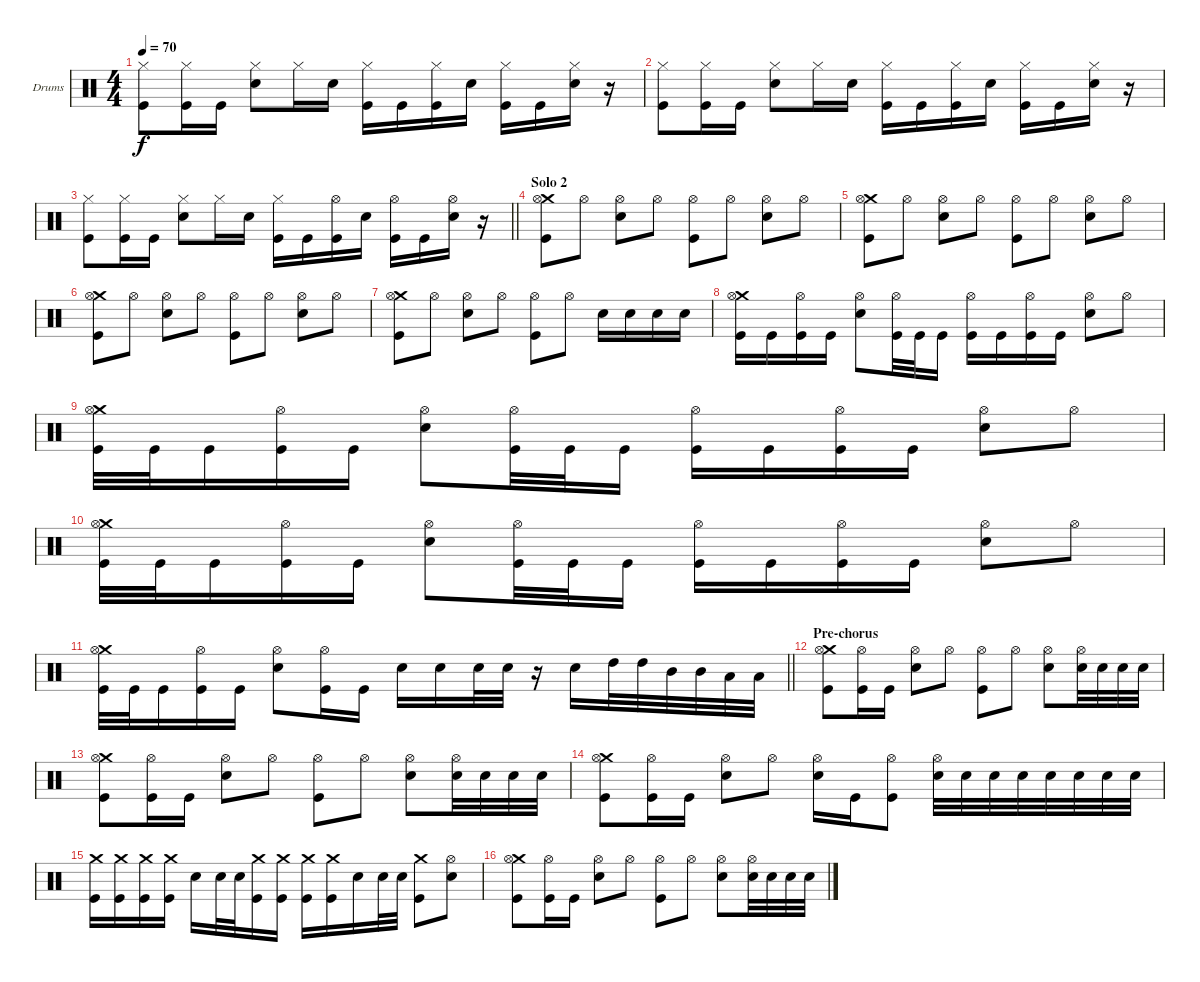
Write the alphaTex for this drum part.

\bracketExtendMode groupsimilarinstruments
\firstSystemTrackNameOrientation horizontal
\otherSystemsTrackNameOrientation horizontal
\track ("Drumkit" "Drums") {instrument percussion}
\staff {score}
\articulation defaults
\ts (4 4)
\tempo 70
\clef neutral
\ks c
("Hi-Hat (closed)" "Kick (hit)").8{dy f} ("Hi-Hat (closed)" "Kick (hit)").16 "Kick (hit)".16 ("Hi-Hat (closed)" "Snare (hit) 2").8 "Hi-Hat (closed)".16 "Snare (hit) 2".16 ("Hi-Hat (closed)" "Kick (hit)").16 "Kick (hit)".16 ("Hi-Hat (closed)" "Kick (hit)").16 "Snare (hit) 2".16 ("Hi-Hat (closed)" "Kick (hit)").16 "Kick (hit)".16 ("Hi-Hat (closed)" "Snare (hit) 2").16 r.16 |
("Hi-Hat (closed)" "Kick (hit)").8 ("Hi-Hat (closed)" "Kick (hit)").16 "Kick (hit)".16 ("Hi-Hat (closed)" "Snare (hit) 2").8 "Hi-Hat (closed)".16 "Snare (hit) 2".16 ("Hi-Hat (closed)" "Kick (hit)").16 "Kick (hit)".16 ("Hi-Hat (closed)" "Kick (hit)").16 "Snare (hit) 2".16 ("Hi-Hat (closed)" "Kick (hit)").16 "Kick (hit)".16 ("Hi-Hat (closed)" "Snare (hit) 2").16 r.16 |
\barLineRight lightlight
("Hi-Hat (closed)" "Kick (hit)").8 ("Hi-Hat (closed)" "Kick (hit)").16 "Kick (hit)".16 ("Hi-Hat (closed)" "Snare (hit) 2").8 "Hi-Hat (closed)".16 "Snare (hit) 2".16 ("Hi-Hat (closed)" "Kick (hit)").16 "Kick (hit)".16 ("Hi-Hat (open)" "Kick (hit)").16 "Snare (hit) 2".16 ("Hi-Hat (open)" "Kick (hit)").16 "Kick (hit)".16 ("Hi-Hat (open)" "Snare (hit) 2").16 r.16 |
\section ("" "Solo 2")
("Crash medium (hit)" "Hi-Hat (open)" "Kick (hit)").8 "Hi-Hat (open)".8 ("Hi-Hat (open)" "Snare (hit) 2").8 "Hi-Hat (open)".8 ("Hi-Hat (open)" "Kick (hit)").8 "Hi-Hat (open)".8 ("Hi-Hat (open)" "Snare (hit) 2").8 "Hi-Hat (open)".8 |
("Crash medium (hit)" "Hi-Hat (open)" "Kick (hit)").8 "Hi-Hat (open)".8 ("Hi-Hat (open)" "Snare (hit) 2").8 "Hi-Hat (open)".8 ("Hi-Hat (open)" "Kick (hit)").8 "Hi-Hat (open)".8 ("Hi-Hat (open)" "Snare (hit) 2").8 "Hi-Hat (open)".8 |
("Crash medium (hit)" "Hi-Hat (open)" "Kick (hit)").8 "Hi-Hat (open)".8 ("Hi-Hat (open)" "Snare (hit) 2").8 "Hi-Hat (open)".8 ("Hi-Hat (open)" "Kick (hit)").8 "Hi-Hat (open)".8 ("Hi-Hat (open)" "Snare (hit) 2").8 "Hi-Hat (open)".8 |
("Crash medium (hit)" "Hi-Hat (open)" "Kick (hit)").8 "Hi-Hat (open)".8 ("Hi-Hat (open)" "Snare (hit) 2").8 "Hi-Hat (open)".8 ("Hi-Hat (open)" "Kick (hit)").8 "Hi-Hat (open)".8 "Snare (hit) 2".16 "Snare (hit) 2".16 "Snare (hit) 2".16 "Snare (hit) 2".16 |
("Crash medium (hit)" "Hi-Hat (open)" "Kick (hit)").16 "Kick (hit)".16 ("Hi-Hat (open)" "Kick (hit)").16 "Kick (hit)".16 ("Hi-Hat (open)" "Snare (hit) 2").8 ("Hi-Hat (open)" "Kick (hit)").32 "Kick (hit)".32 "Kick (hit)".16 ("Hi-Hat (open)" "Kick (hit)").16 "Kick (hit)".16 ("Hi-Hat (open)" "Kick (hit)").16 "Kick (hit)".16 ("Hi-Hat (open)" "Snare (hit) 2").8 "Hi-Hat (open)".8 |
("Crash medium (hit)" "Hi-Hat (open)" "Kick (hit)").32 "Kick (hit)".32 "Kick (hit)".16 ("Hi-Hat (open)" "Kick (hit)").16 "Kick (hit)".16 ("Hi-Hat (open)" "Snare (hit) 2").8 ("Hi-Hat (open)" "Kick (hit)").32 "Kick (hit)".32 "Kick (hit)".16 ("Hi-Hat (open)" "Kick (hit)").16 "Kick (hit)".16 ("Hi-Hat (open)" "Kick (hit)").16 "Kick (hit)".16 ("Hi-Hat (open)" "Snare (hit) 2").8 "Hi-Hat (open)".8 |
("Crash medium (hit)" "Hi-Hat (open)" "Kick (hit)").32 "Kick (hit)".32 "Kick (hit)".16 ("Hi-Hat (open)" "Kick (hit)").16 "Kick (hit)".16 ("Hi-Hat (open)" "Snare (hit) 2").8 ("Hi-Hat (open)" "Kick (hit)").32 "Kick (hit)".32 "Kick (hit)".16 ("Hi-Hat (open)" "Kick (hit)").16 "Kick (hit)".16 ("Hi-Hat (open)" "Kick (hit)").16 "Kick (hit)".16 ("Hi-Hat (open)" "Snare (hit) 2").8 "Hi-Hat (open)".8 |
\barLineRight lightlight
("Crash medium (hit)" "Hi-Hat (open)" "Kick (hit)").32 "Kick (hit)".32 "Kick (hit)".16 ("Hi-Hat (open)" "Kick (hit)").16 "Kick (hit)".16 ("Hi-Hat (open)" "Snare (hit) 2").8 ("Hi-Hat (open)" "Kick (hit)").16 "Kick (hit)".16 "Snare (hit) 2".16 "Snare (hit) 2".16 "Snare (hit) 2".32 "Snare (hit) 2".32 r.16 "Snare (hit) 2".16 "High Tom (hit)".32 "High Tom (hit)".32 "Mid Tom (hit)".32 "Mid Tom (hit)".32 "Low Tom (hit)".32 "Low Tom (hit)".32 |
\section ("" "Pre-chorus")
("Crash medium (hit)" "Hi-Hat (open)" "Kick (hit)").8 ("Hi-Hat (open)" "Kick (hit)").16 "Kick (hit)".16 ("Hi-Hat (open)" "Snare (hit) 2").8 "Hi-Hat (open)".8 ("Hi-Hat (open)" "Kick (hit)").8 "Hi-Hat (open)".8 ("Hi-Hat (open)" "Snare (hit) 2").8 ("Hi-Hat (open)" "Snare (hit) 2").32 "Snare (hit) 2".32 "Snare (hit) 2".32 "Snare (hit) 2".32 |
("Crash medium (hit)" "Hi-Hat (open)" "Kick (hit)").8 ("Hi-Hat (open)" "Kick (hit)").16 "Kick (hit)".16 ("Hi-Hat (open)" "Snare (hit) 2").8 "Hi-Hat (open)".8 ("Hi-Hat (open)" "Kick (hit)").8 "Hi-Hat (open)".8 ("Hi-Hat (open)" "Snare (hit) 2").8 ("Hi-Hat (open)" "Snare (hit) 2").32 "Snare (hit) 2".32 "Snare (hit) 2".32 "Snare (hit) 2".32 |
("Crash medium (hit)" "Hi-Hat (open)" "Kick (hit)").8 ("Hi-Hat (open)" "Kick (hit)").16 "Kick (hit)".16 ("Hi-Hat (open)" "Snare (hit) 2").8 "Hi-Hat (open)".8 ("Hi-Hat (open)" "Snare (hit) 2").16 "Kick (hit)".16 ("Hi-Hat (open)" "Kick (hit)").8 ("Hi-Hat (open)" "Snare (hit) 2").32 "Snare (hit) 2".32 "Snare (hit) 2".32 "Snare (hit) 2".32 "Snare (hit) 2".32 "Snare (hit) 2".32 "Snare (hit) 2".32 "Snare (hit) 2".32 |
("Crash medium (hit)" "Kick (hit)").16 ("Crash medium (hit)" "Kick (hit)").16 ("Crash medium (hit)" "Kick (hit)").16 ("Crash medium (hit)" "Kick (hit)").16 "Snare (hit) 2".16 "Snare (hit) 2".32 "Snare (hit) 2".32 ("Crash medium (hit)" "Kick (hit)").16 ("Crash medium (hit)" "Kick (hit)").16 ("Crash medium (hit)" "Kick (hit)").16 ("Crash medium (hit)" "Kick (hit)").16 "Snare (hit) 2".16 "Snare (hit) 2".32 "Snare (hit) 2".32 ("Crash medium (hit)" "Kick (hit)").8 ("Hi-Hat (open)" "Snare (hit) 2").8 |
("Crash medium (hit)" "Hi-Hat (open)" "Kick (hit)").8 ("Hi-Hat (open)" "Kick (hit)").16 "Kick (hit)".16 ("Hi-Hat (open)" "Snare (hit) 2").8 "Hi-Hat (open)".8 ("Hi-Hat (open)" "Kick (hit)").8 "Hi-Hat (open)".8 ("Hi-Hat (open)" "Snare (hit) 2").8 ("Hi-Hat (open)" "Snare (hit) 2").32 "Snare (hit) 2".32 "Snare (hit) 2".32 "Snare (hit) 2".32
